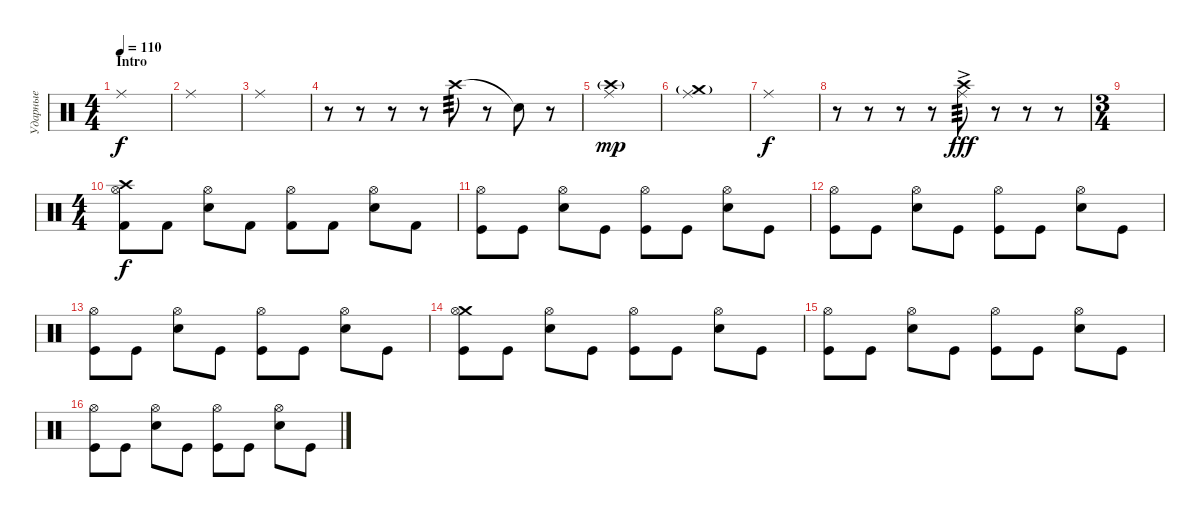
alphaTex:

\track ("Ударные" "Ударные") {instrument percussion}
\staff {score}
\articulation defaults
\ts (4 4)
\section ("" "Intro")
\tempo 110
\clef neutral
\ks c "Ride (middle)".1{dy f}
|
"Ride (middle)".1 |
"Ride (middle)".1 |
r.8 r.8 r.8 r.8 "Crash high (hit)".8{tp 3} r.8 "Snare (hit)"{t}.8 r.8 |
("Crash high (hit)"{g} "Ride (middle)").1{dy mp} |
("Crash medium (hit)"{g} "Ride (middle)").1 |
"Ride (middle)".1{dy f} |
r.8 r.8 r.8 r.8 ("Crash high (hit)" "Ride (middle)"{ac}).8{tp 3 dy fff} r.8 r.8 r.8 |
\ts (3 4)
|
\ts (4 4)
("Crash high (hit)" "Hi-Hat (open)" "Kick (hit) 2").8{dy f} "Kick (hit) 2".8 ("Hi-Hat (open)" "Electric Snare (hit)").8 "Kick (hit) 2".8 ("Hi-Hat (open)" "Kick (hit) 2").8 "Kick (hit) 2".8 ("Hi-Hat (open)" "Electric Snare (hit)").8 "Kick (hit) 2".8 |
("Hi-Hat (open)" "Kick (hit)").8 "Kick (hit)".8 ("Hi-Hat (open)" "Electric Snare (hit)").8 "Kick (hit)".8 ("Hi-Hat (open)" "Kick (hit)").8 "Kick (hit)".8 ("Hi-Hat (open)" "Electric Snare (hit)").8 "Kick (hit)".8 |
("Hi-Hat (open)" "Kick (hit)").8 "Kick (hit)".8 ("Hi-Hat (open)" "Electric Snare (hit)").8 "Kick (hit)".8 ("Hi-Hat (open)" "Kick (hit)").8 "Kick (hit)".8 ("Hi-Hat (open)" "Electric Snare (hit)").8 "Kick (hit)".8 |
("Hi-Hat (open)" "Kick (hit)").8 "Kick (hit)".8 ("Hi-Hat (open)" "Electric Snare (hit)").8 "Kick (hit)".8 ("Hi-Hat (open)" "Kick (hit)").8 "Kick (hit)".8 ("Hi-Hat (open)" "Electric Snare (hit)").8 "Kick (hit)".8 |
("Crash medium (hit)" "Hi-Hat (open)" "Kick (hit)").8 "Kick (hit)".8 ("Hi-Hat (open)" "Electric Snare (hit)").8 "Kick (hit)".8 ("Hi-Hat (open)" "Kick (hit)").8 "Kick (hit)".8 ("Hi-Hat (open)" "Electric Snare (hit)").8 "Kick (hit)".8 |
("Hi-Hat (open)" "Kick (hit)").8 "Kick (hit)".8 ("Hi-Hat (open)" "Electric Snare (hit)").8 "Kick (hit)".8 ("Hi-Hat (open)" "Kick (hit)").8 "Kick (hit)".8 ("Hi-Hat (open)" "Electric Snare (hit)").8 "Kick (hit)".8 |
("Hi-Hat (open)" "Kick (hit)").8 "Kick (hit)".8 ("Hi-Hat (open)" "Electric Snare (hit)").8 "Kick (hit)".8 ("Hi-Hat (open)" "Kick (hit)").8 "Kick (hit)".8 ("Hi-Hat (open)" "Electric Snare (hit)").8 "Kick (hit)".8
